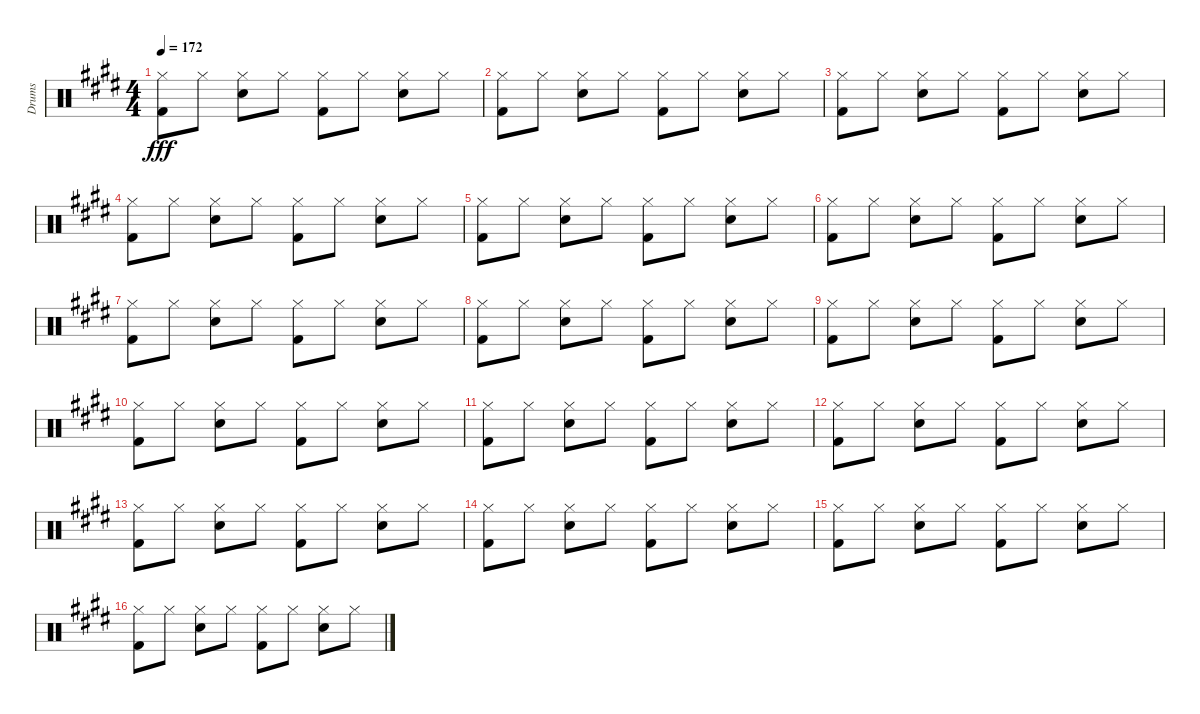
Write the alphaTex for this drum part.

\track ("Drums" "Drums") {instrument percussion}
\staff {score}
\articulation defaults
\ts (4 4)
\tempo 172
\clef neutral
\ks e
("Hi-Hat (closed)" "Kick (hit) 2").8{dy fff} "Hi-Hat (closed)".8 ("Hi-Hat (closed)" "Electric Snare (hit)").8 "Hi-Hat (closed)".8 ("Hi-Hat (closed)" "Kick (hit) 2").8 "Hi-Hat (closed)".8 ("Hi-Hat (closed)" "Electric Snare (hit)").8 "Hi-Hat (closed)".8 |
("Hi-Hat (closed)" "Kick (hit) 2").8 "Hi-Hat (closed)".8 ("Hi-Hat (closed)" "Electric Snare (hit)").8 "Hi-Hat (closed)".8 ("Hi-Hat (closed)" "Kick (hit) 2").8 "Hi-Hat (closed)".8 ("Hi-Hat (closed)" "Electric Snare (hit)").8 "Hi-Hat (closed)".8 |
("Hi-Hat (closed)" "Kick (hit) 2").8 "Hi-Hat (closed)".8 ("Hi-Hat (closed)" "Electric Snare (hit)").8 "Hi-Hat (closed)".8 ("Hi-Hat (closed)" "Kick (hit) 2").8 "Hi-Hat (closed)".8 ("Hi-Hat (closed)" "Electric Snare (hit)").8 "Hi-Hat (closed)".8 |
("Hi-Hat (closed)" "Kick (hit) 2").8 "Hi-Hat (closed)".8 ("Hi-Hat (closed)" "Electric Snare (hit)").8 "Hi-Hat (closed)".8 ("Hi-Hat (closed)" "Kick (hit) 2").8 "Hi-Hat (closed)".8 ("Hi-Hat (closed)" "Electric Snare (hit)").8 "Hi-Hat (closed)".8 |
("Hi-Hat (closed)" "Kick (hit) 2").8 "Hi-Hat (closed)".8 ("Hi-Hat (closed)" "Electric Snare (hit)").8 "Hi-Hat (closed)".8 ("Hi-Hat (closed)" "Kick (hit) 2").8 "Hi-Hat (closed)".8 ("Hi-Hat (closed)" "Electric Snare (hit)").8 "Hi-Hat (closed)".8 |
("Hi-Hat (closed)" "Kick (hit) 2").8 "Hi-Hat (closed)".8 ("Hi-Hat (closed)" "Electric Snare (hit)").8 "Hi-Hat (closed)".8 ("Hi-Hat (closed)" "Kick (hit) 2").8 "Hi-Hat (closed)".8 ("Hi-Hat (closed)" "Electric Snare (hit)").8 "Hi-Hat (closed)".8 |
("Hi-Hat (closed)" "Kick (hit) 2").8 "Hi-Hat (closed)".8 ("Hi-Hat (closed)" "Electric Snare (hit)").8 "Hi-Hat (closed)".8 ("Hi-Hat (closed)" "Kick (hit) 2").8 "Hi-Hat (closed)".8 ("Hi-Hat (closed)" "Electric Snare (hit)").8 "Hi-Hat (closed)".8 |
("Hi-Hat (closed)" "Kick (hit) 2").8 "Hi-Hat (closed)".8 ("Hi-Hat (closed)" "Electric Snare (hit)").8 "Hi-Hat (closed)".8 ("Hi-Hat (closed)" "Kick (hit) 2").8 "Hi-Hat (closed)".8 ("Hi-Hat (closed)" "Electric Snare (hit)").8 "Hi-Hat (closed)".8 |
("Hi-Hat (closed)" "Kick (hit) 2").8 "Hi-Hat (closed)".8 ("Hi-Hat (closed)" "Electric Snare (hit)").8 "Hi-Hat (closed)".8 ("Hi-Hat (closed)" "Kick (hit) 2").8 "Hi-Hat (closed)".8 ("Hi-Hat (closed)" "Electric Snare (hit)").8 "Hi-Hat (closed)".8 |
("Hi-Hat (closed)" "Kick (hit) 2").8 "Hi-Hat (closed)".8 ("Hi-Hat (closed)" "Electric Snare (hit)").8 "Hi-Hat (closed)".8 ("Hi-Hat (closed)" "Kick (hit) 2").8 "Hi-Hat (closed)".8 ("Hi-Hat (closed)" "Electric Snare (hit)").8 "Hi-Hat (closed)".8 |
("Hi-Hat (closed)" "Kick (hit) 2").8 "Hi-Hat (closed)".8 ("Hi-Hat (closed)" "Electric Snare (hit)").8 "Hi-Hat (closed)".8 ("Hi-Hat (closed)" "Kick (hit) 2").8 "Hi-Hat (closed)".8 ("Hi-Hat (closed)" "Electric Snare (hit)").8 "Hi-Hat (closed)".8 |
("Hi-Hat (closed)" "Kick (hit) 2").8 "Hi-Hat (closed)".8 ("Hi-Hat (closed)" "Electric Snare (hit)").8 "Hi-Hat (closed)".8 ("Hi-Hat (closed)" "Kick (hit) 2").8 "Hi-Hat (closed)".8 ("Hi-Hat (closed)" "Electric Snare (hit)").8 "Hi-Hat (closed)".8 |
("Hi-Hat (closed)" "Kick (hit) 2").8 "Hi-Hat (closed)".8 ("Hi-Hat (closed)" "Electric Snare (hit)").8 "Hi-Hat (closed)".8 ("Hi-Hat (closed)" "Kick (hit) 2").8 "Hi-Hat (closed)".8 ("Hi-Hat (closed)" "Electric Snare (hit)").8 "Hi-Hat (closed)".8 |
("Hi-Hat (closed)" "Kick (hit) 2").8 "Hi-Hat (closed)".8 ("Hi-Hat (closed)" "Electric Snare (hit)").8 "Hi-Hat (closed)".8 ("Hi-Hat (closed)" "Kick (hit) 2").8 "Hi-Hat (closed)".8 ("Hi-Hat (closed)" "Electric Snare (hit)").8 "Hi-Hat (closed)".8 |
("Hi-Hat (closed)" "Kick (hit) 2").8 "Hi-Hat (closed)".8 ("Hi-Hat (closed)" "Electric Snare (hit)").8 "Hi-Hat (closed)".8 ("Hi-Hat (closed)" "Kick (hit) 2").8 "Hi-Hat (closed)".8 ("Hi-Hat (closed)" "Electric Snare (hit)").8 "Hi-Hat (closed)".8 |
("Hi-Hat (closed)" "Kick (hit) 2").8 "Hi-Hat (closed)".8 ("Hi-Hat (closed)" "Electric Snare (hit)").8 "Hi-Hat (closed)".8 ("Hi-Hat (closed)" "Kick (hit) 2").8 "Hi-Hat (closed)".8 ("Hi-Hat (closed)" "Electric Snare (hit)").8 "Hi-Hat (closed)".8
